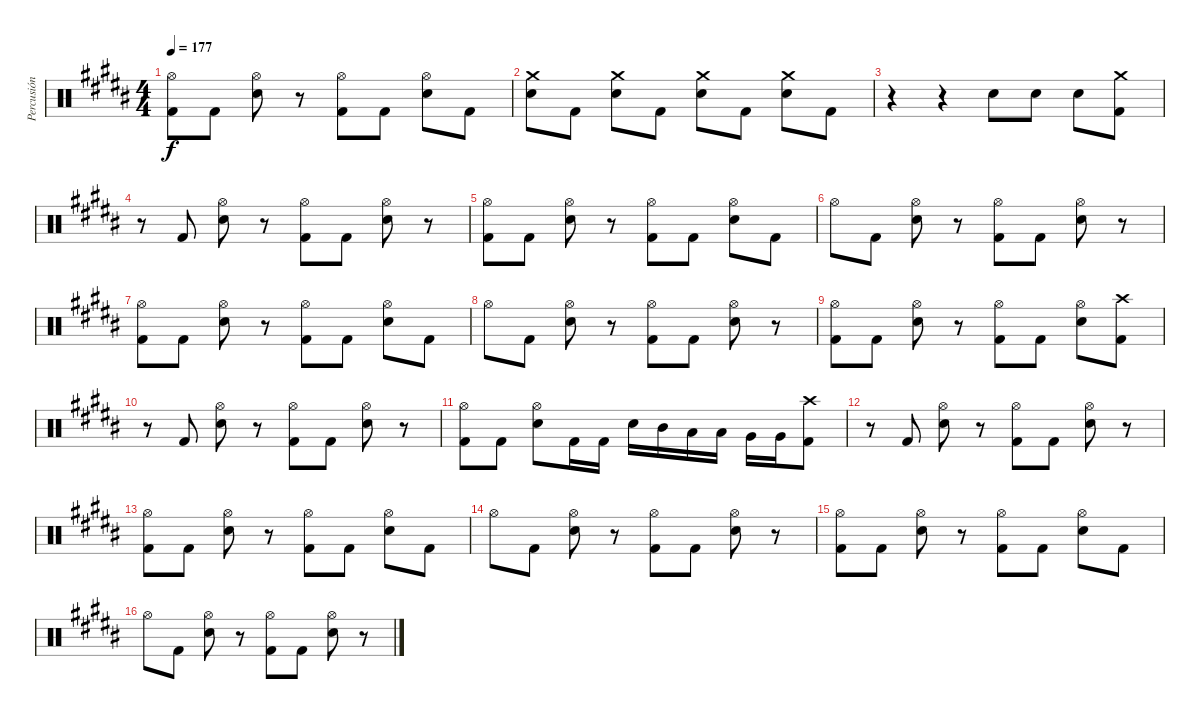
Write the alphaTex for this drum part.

\track ("Percusión" "Percusión") {instrument percussion}
\staff {score}
\articulation defaults
\ts (4 4)
\tempo 177
\clef neutral
\ks g#minor
("Kick (hit) 2" "Hi-Hat (open)").8{dy f} "Kick (hit) 2".8 ("Snare (hit) 2" "Hi-Hat (open)").8 r.8 ("Kick (hit) 2" "Hi-Hat (open)").8 "Kick (hit) 2".8 ("Snare (hit) 2" "Hi-Hat (open)").8 "Kick (hit) 2".8 |
("Snare (hit) 2" "Crash medium (hit)").8 "Kick (hit) 2".8 ("Snare (hit) 2" "Crash medium (hit)").8 "Kick (hit) 2".8 ("Snare (hit) 2" "Crash medium (hit)").8 "Kick (hit) 2".8 ("Snare (hit) 2" "Crash medium (hit)").8 "Kick (hit) 2".8 |
r.4 r.4 "Snare (hit) 2".8 "Snare (hit) 2".8 "Snare (hit) 2".8 ("Kick (hit) 2" "Crash medium (hit)").8 |
r.8 "Kick (hit) 2".8 ("Snare (hit) 2" "Hi-Hat (open)").8 r.8 ("Kick (hit) 2" "Hi-Hat (open)").8 "Kick (hit) 2".8 ("Snare (hit) 2" "Hi-Hat (open)").8 r.8 |
("Kick (hit) 2" "Hi-Hat (open)").8 "Kick (hit) 2".8 ("Snare (hit) 2" "Hi-Hat (open)").8 r.8 ("Kick (hit) 2" "Hi-Hat (open)").8 "Kick (hit) 2".8 ("Snare (hit) 2" "Hi-Hat (open)").8 "Kick (hit) 2".8 |
"Hi-Hat (open)".8 "Kick (hit) 2".8 ("Snare (hit) 2" "Hi-Hat (open)").8 r.8 ("Kick (hit) 2" "Hi-Hat (open)").8 "Kick (hit) 2".8 ("Snare (hit) 2" "Hi-Hat (open)").8 r.8 |
("Kick (hit) 2" "Hi-Hat (open)").8 "Kick (hit) 2".8 ("Snare (hit) 2" "Hi-Hat (open)").8 r.8 ("Kick (hit) 2" "Hi-Hat (open)").8 "Kick (hit) 2".8 ("Snare (hit) 2" "Hi-Hat (open)").8 "Kick (hit) 2".8 |
"Hi-Hat (open)".8 "Kick (hit) 2".8 ("Snare (hit) 2" "Hi-Hat (open)").8 r.8 ("Kick (hit) 2" "Hi-Hat (open)").8 "Kick (hit) 2".8 ("Snare (hit) 2" "Hi-Hat (open)").8 r.8 |
("Kick (hit) 2" "Hi-Hat (open)").8 "Kick (hit) 2".8 ("Snare (hit) 2" "Hi-Hat (open)").8 r.8 ("Kick (hit) 2" "Hi-Hat (open)").8 "Kick (hit) 2".8 ("Snare (hit) 2" "Hi-Hat (open)").8 ("Kick (hit) 2" "Crash high (hit)").8 |
r.8 "Kick (hit) 2".8 ("Snare (hit) 2" "Hi-Hat (open)").8 r.8 ("Kick (hit) 2" "Hi-Hat (open)").8 "Kick (hit) 2".8 ("Snare (hit) 2" "Hi-Hat (open)").8 r.8 |
("Kick (hit) 2" "Hi-Hat (open)").8 "Kick (hit) 2".8 ("Snare (hit) 2" "Hi-Hat (open)").8 "Kick (hit) 2".16 "Kick (hit) 2".16 "Snare (hit) 2".16 "Mid Tom (hit)".16 "Low Tom (hit)".16 "Low Tom (hit)".16 "Very Low Tom (hit)".16 "Very Low Tom (hit)".16 ("Kick (hit) 2" "Crash high (hit)").8 |
r.8 "Kick (hit) 2".8 ("Snare (hit) 2" "Hi-Hat (open)").8 r.8 ("Kick (hit) 2" "Hi-Hat (open)").8 "Kick (hit) 2".8 ("Snare (hit) 2" "Hi-Hat (open)").8 r.8 |
("Kick (hit) 2" "Hi-Hat (open)").8 "Kick (hit) 2".8 ("Snare (hit) 2" "Hi-Hat (open)").8 r.8 ("Kick (hit) 2" "Hi-Hat (open)").8 "Kick (hit) 2".8 ("Snare (hit) 2" "Hi-Hat (open)").8 "Kick (hit) 2".8 |
"Hi-Hat (open)".8 "Kick (hit) 2".8 ("Snare (hit) 2" "Hi-Hat (open)").8 r.8 ("Kick (hit) 2" "Hi-Hat (open)").8 "Kick (hit) 2".8 ("Snare (hit) 2" "Hi-Hat (open)").8 r.8 |
("Kick (hit) 2" "Hi-Hat (open)").8 "Kick (hit) 2".8 ("Snare (hit) 2" "Hi-Hat (open)").8 r.8 ("Kick (hit) 2" "Hi-Hat (open)").8 "Kick (hit) 2".8 ("Snare (hit) 2" "Hi-Hat (open)").8 "Kick (hit) 2".8 |
"Hi-Hat (open)".8 "Kick (hit) 2".8 ("Snare (hit) 2" "Hi-Hat (open)").8 r.8 ("Kick (hit) 2" "Hi-Hat (open)").8 "Kick (hit) 2".8 ("Snare (hit) 2" "Hi-Hat (open)").8 r.8
